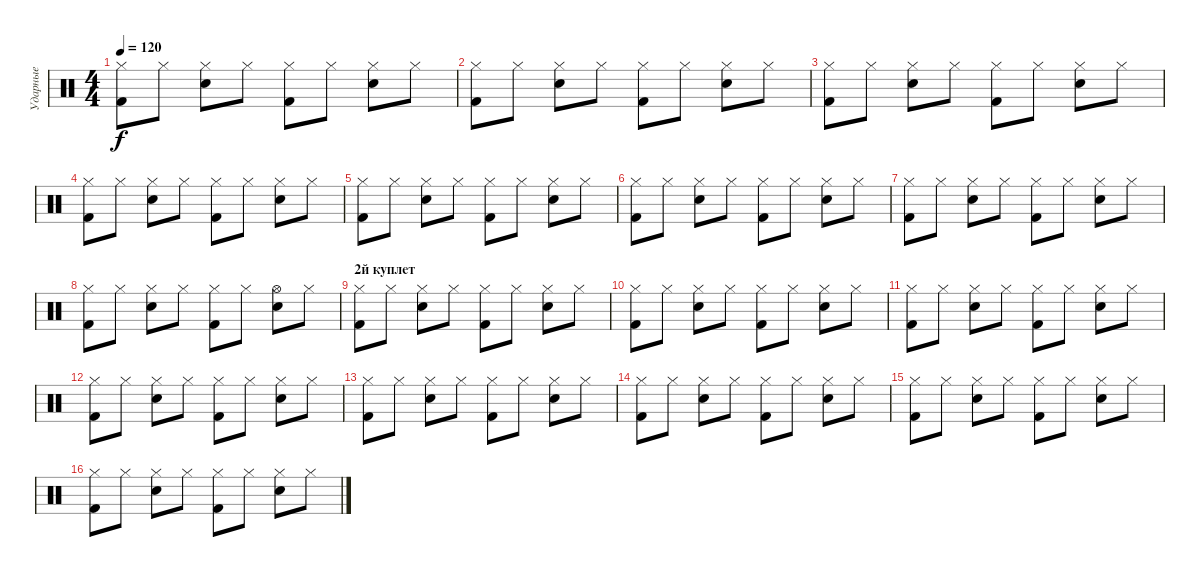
\track ("Ударные" "Ударные") {instrument percussion}
\staff {score}
\articulation defaults
\ts (4 4)
\tempo 120
\clef neutral
\ks c
("Hi-Hat (closed)" "Kick (hit) 2").8{dy f} "Hi-Hat (closed)".8 ("Hi-Hat (closed)" "Snare (hit) 2").8 "Hi-Hat (closed)".8 ("Hi-Hat (closed)" "Kick (hit) 2").8 "Hi-Hat (closed)".8 ("Hi-Hat (closed)" "Snare (hit) 2").8 "Hi-Hat (closed)".8 |
("Hi-Hat (closed)" "Kick (hit) 2").8 "Hi-Hat (closed)".8 ("Hi-Hat (closed)" "Snare (hit) 2").8 "Hi-Hat (closed)".8 ("Hi-Hat (closed)" "Kick (hit) 2").8 "Hi-Hat (closed)".8{volume 13} ("Hi-Hat (closed)" "Snare (hit) 2").8 "Hi-Hat (closed)".8 |
("Hi-Hat (closed)" "Kick (hit) 2").8 "Hi-Hat (closed)".8 ("Hi-Hat (closed)" "Snare (hit) 2").8 "Hi-Hat (closed)".8 ("Hi-Hat (closed)" "Kick (hit) 2").8 "Hi-Hat (closed)".8 ("Hi-Hat (closed)" "Snare (hit) 2").8 "Hi-Hat (closed)".8 |
("Hi-Hat (closed)" "Kick (hit) 2").8 "Hi-Hat (closed)".8 ("Hi-Hat (closed)" "Snare (hit) 2").8 "Hi-Hat (closed)".8 ("Hi-Hat (closed)" "Kick (hit) 2").8 "Hi-Hat (closed)".8 ("Hi-Hat (closed)" "Snare (hit) 2").8 "Hi-Hat (closed)".8 |
("Hi-Hat (closed)" "Kick (hit) 2").8 "Hi-Hat (closed)".8 ("Hi-Hat (closed)" "Snare (hit) 2").8 "Hi-Hat (closed)".8 ("Hi-Hat (closed)" "Kick (hit) 2").8 "Hi-Hat (closed)".8 ("Hi-Hat (closed)" "Snare (hit) 2").8 "Hi-Hat (closed)".8 |
("Hi-Hat (closed)" "Kick (hit) 2").8 "Hi-Hat (closed)".8 ("Hi-Hat (closed)" "Snare (hit) 2").8 "Hi-Hat (closed)".8 ("Hi-Hat (closed)" "Kick (hit) 2").8 "Hi-Hat (closed)".8 ("Hi-Hat (closed)" "Snare (hit) 2").8 "Hi-Hat (closed)".8 |
("Hi-Hat (closed)" "Kick (hit) 2").8 "Hi-Hat (closed)".8 ("Hi-Hat (closed)" "Snare (hit) 2").8 "Hi-Hat (closed)".8 ("Hi-Hat (closed)" "Kick (hit) 2").8 "Hi-Hat (closed)".8 ("Hi-Hat (closed)" "Snare (hit) 2").8 "Hi-Hat (closed)".8 |
("Hi-Hat (closed)" "Kick (hit) 2").8 "Hi-Hat (closed)".8 ("Hi-Hat (closed)" "Snare (hit) 2").8 "Hi-Hat (closed)".8 ("Hi-Hat (closed)" "Kick (hit) 2").8 "Hi-Hat (closed)".8 ("Hi-Hat (open)" "Snare (hit) 2").8 "Hi-Hat (closed)".8 |
\section ("" "2й куплет")
("Hi-Hat (closed)" "Kick (hit) 2").8 "Hi-Hat (closed)".8 ("Hi-Hat (closed)" "Snare (hit) 2").8 "Hi-Hat (closed)".8 ("Hi-Hat (closed)" "Kick (hit) 2").8 "Hi-Hat (closed)".8 ("Hi-Hat (closed)" "Snare (hit) 2").8 "Hi-Hat (closed)".8 |
("Hi-Hat (closed)" "Kick (hit) 2").8 "Hi-Hat (closed)".8 ("Hi-Hat (closed)" "Snare (hit) 2").8 "Hi-Hat (closed)".8 ("Hi-Hat (closed)" "Kick (hit) 2").8 "Hi-Hat (closed)".8 ("Hi-Hat (closed)" "Snare (hit) 2").8 "Hi-Hat (closed)".8 |
("Hi-Hat (closed)" "Kick (hit) 2").8 "Hi-Hat (closed)".8 ("Hi-Hat (closed)" "Snare (hit) 2").8 "Hi-Hat (closed)".8 ("Hi-Hat (closed)" "Kick (hit) 2").8 "Hi-Hat (closed)".8 ("Hi-Hat (closed)" "Snare (hit) 2").8 "Hi-Hat (closed)".8 |
("Hi-Hat (closed)" "Kick (hit) 2").8 "Hi-Hat (closed)".8 ("Hi-Hat (closed)" "Snare (hit) 2").8 "Hi-Hat (closed)".8 ("Hi-Hat (closed)" "Kick (hit) 2").8 "Hi-Hat (closed)".8 ("Hi-Hat (closed)" "Snare (hit) 2").8 "Hi-Hat (closed)".8 |
("Hi-Hat (closed)" "Kick (hit) 2").8 "Hi-Hat (closed)".8 ("Hi-Hat (closed)" "Snare (hit) 2").8 "Hi-Hat (closed)".8 ("Hi-Hat (closed)" "Kick (hit) 2").8 "Hi-Hat (closed)".8 ("Hi-Hat (closed)" "Snare (hit) 2").8 "Hi-Hat (closed)".8 |
("Hi-Hat (closed)" "Kick (hit) 2").8 "Hi-Hat (closed)".8 ("Hi-Hat (closed)" "Snare (hit) 2").8 "Hi-Hat (closed)".8 ("Hi-Hat (closed)" "Kick (hit) 2").8 "Hi-Hat (closed)".8 ("Hi-Hat (closed)" "Snare (hit) 2").8 "Hi-Hat (closed)".8 |
("Hi-Hat (closed)" "Kick (hit) 2").8 "Hi-Hat (closed)".8 ("Hi-Hat (closed)" "Snare (hit) 2").8 "Hi-Hat (closed)".8 ("Hi-Hat (closed)" "Kick (hit) 2").8 "Hi-Hat (closed)".8 ("Hi-Hat (closed)" "Snare (hit) 2").8 "Hi-Hat (closed)".8 |
("Hi-Hat (closed)" "Kick (hit) 2").8 "Hi-Hat (closed)".8 ("Hi-Hat (closed)" "Snare (hit) 2").8 "Hi-Hat (closed)".8 ("Hi-Hat (closed)" "Kick (hit) 2").8 "Hi-Hat (closed)".8 ("Hi-Hat (closed)" "Snare (hit) 2").8 "Hi-Hat (closed)".8
